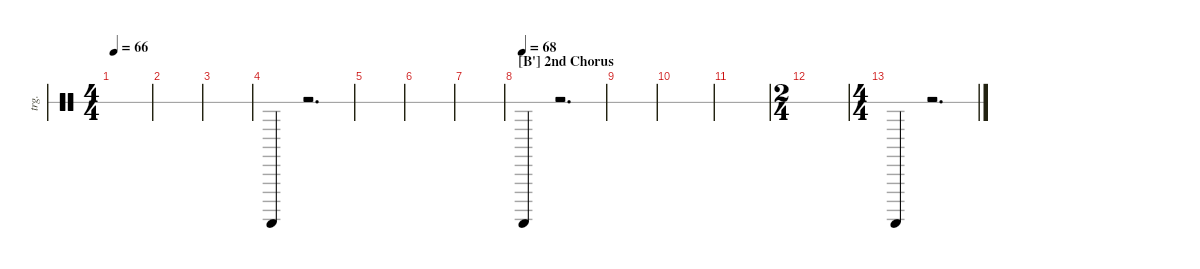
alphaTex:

\defaultSystemsLayout 4
\hideDynamics
\bracketExtendMode nobrackets
\track ("Triangle" "trg.") {instrument percussion}
\staff {score 1}
\articulation defaults
\ts (4 4)
\tempo 66
\clef neutral
\ks c
|
|
|
"Triangle (hit)".4 r.2{d} |
|
|
|
\section ("B'" "2nd Chorus")
\tempo (68)
"Triangle (hit)".4 r.2{d} |
|
|
|
\ts (2 4)
\beaming (8 2 2)
|
\ts (4 4)
\beaming (8 2 2 2 2)
"Triangle (hit)".4 r.2{d}
